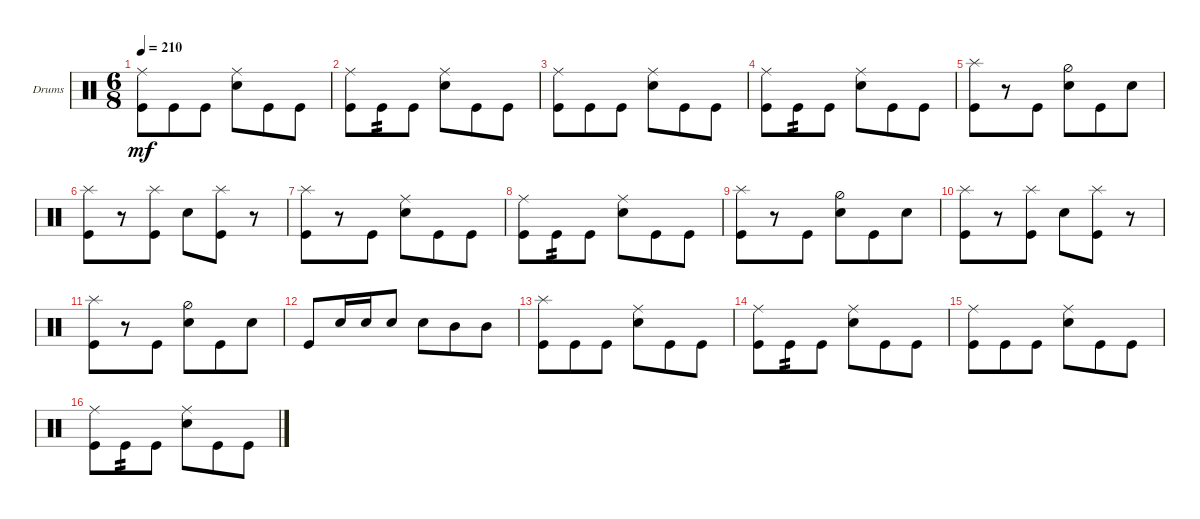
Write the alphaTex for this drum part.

\bracketExtendMode groupsimilarinstruments
\firstSystemTrackNameOrientation horizontal
\otherSystemsTrackNameOrientation horizontal
\track ("Drumkit" "Drums") {instrument percussion}
\staff {score}
\articulation defaults
\ts (6 8)
\tempo 210
\clef neutral
\ks c
("Kick (hit)" "Ride (middle)").8{dy mf} "Kick (hit)".8 "Kick (hit)".8 ("Snare (hit) 2" "Ride (middle)").8 "Kick (hit)".8 "Kick (hit)".8 |
("Kick (hit)" "Ride (middle)").8 "Kick (hit)".8{tp 2} "Kick (hit)".8 ("Snare (hit) 2" "Ride (middle)").8 "Kick (hit)".8 "Kick (hit)".8 |
("Kick (hit)" "Ride (middle)").8 "Kick (hit)".8 "Kick (hit)".8 ("Snare (hit) 2" "Ride (middle)").8 "Kick (hit)".8 "Kick (hit)".8 |
("Kick (hit)" "Ride (middle)").8 "Kick (hit)".8{tp 2} "Kick (hit)".8 ("Snare (hit) 2" "Ride (middle)").8 "Kick (hit)".8 "Kick (hit)".8 |
("Kick (hit)" "Splash (hit)").8 r.8 "Kick (hit)".8 ("Snare (hit) 2" "Hi-Hat (half)").8 "Kick (hit)".8 "Snare (hit) 2".8 |
("Kick (hit)" "Splash (hit)").8 r.8 ("Kick (hit)" "Splash (hit)").8 "Snare (hit) 2".8 ("Kick (hit)" "Splash (hit)").8 r.8 |
("Kick (hit)" "Splash (hit)").8 r.8 "Kick (hit)".8 ("Snare (hit) 2" "Ride (middle)").8 "Kick (hit)".8 "Kick (hit)".8 |
("Kick (hit)" "Ride (middle)").8 "Kick (hit)".8{tp 2} "Kick (hit)".8 ("Snare (hit) 2" "Ride (middle)").8 "Kick (hit)".8 "Kick (hit)".8 |
("Kick (hit)" "Splash (hit)").8 r.8 "Kick (hit)".8 ("Snare (hit) 2" "Hi-Hat (half)").8 "Kick (hit)".8 "Snare (hit) 2".8 |
("Kick (hit)" "Splash (hit)").8 r.8 ("Kick (hit)" "Splash (hit)").8 "Snare (hit) 2".8 ("Kick (hit)" "Splash (hit)").8 r.8 |
("Kick (hit)" "Splash (hit)").8 r.8 "Kick (hit)".8 ("Snare (hit) 2" "Hi-Hat (half)").8 "Kick (hit)".8 "Snare (hit) 2".8 |
"Kick (hit)".8 "Snare (hit) 2".16 "Snare (hit) 2".16 "Snare (hit) 2".8 "Snare (hit) 2".8 "Mid Tom (hit)".8 "Mid Tom (hit)".8 |
("Kick (hit)" "Splash (hit)").8 "Kick (hit)".8 "Kick (hit)".8 ("Snare (hit) 2" "Ride (middle)").8 "Kick (hit)".8 "Kick (hit)".8 |
("Kick (hit)" "Ride (middle)").8 "Kick (hit)".8{tp 2} "Kick (hit)".8 ("Snare (hit) 2" "Ride (middle)").8 "Kick (hit)".8 "Kick (hit)".8 |
("Kick (hit)" "Ride (middle)").8 "Kick (hit)".8 "Kick (hit)".8 ("Snare (hit) 2" "Ride (middle)").8 "Kick (hit)".8 "Kick (hit)".8 |
("Kick (hit)" "Ride (middle)").8 "Kick (hit)".8{tp 2} "Kick (hit)".8 ("Snare (hit) 2" "Ride (middle)").8 "Kick (hit)".8 "Kick (hit)".8
